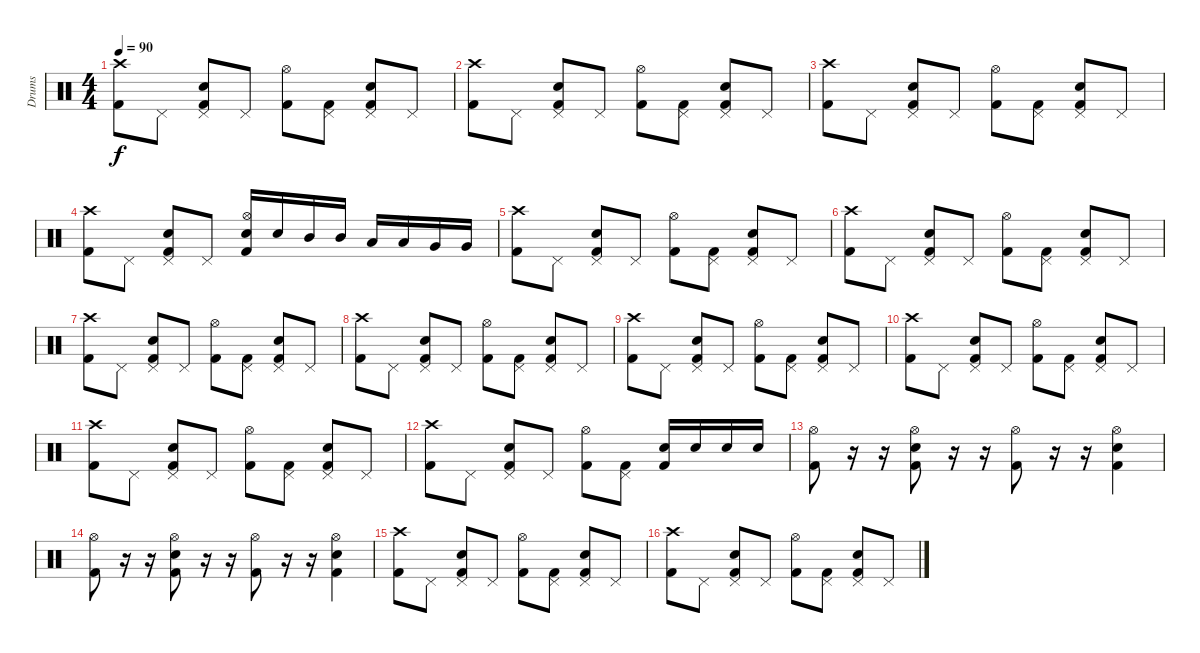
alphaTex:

\track ("Drums" "Drums") {instrument percussion}
\staff {score}
\articulation defaults
\ts (4 4)
\tempo 90
\clef neutral
\ks c
("Crash high (hit)" "Kick (hit) 2").8{dy f} "Pedal Hi-Hat (hit)".8 ("Pedal Hi-Hat (hit)" "Electric Snare (hit)" "Kick (hit) 2").8 "Pedal Hi-Hat (hit)".8 ("Hi-Hat (open)" "Kick (hit) 2").8 ("Pedal Hi-Hat (hit)" "Kick (hit) 2").8 ("Pedal Hi-Hat (hit)" "Electric Snare (hit)" "Kick (hit) 2").8 "Pedal Hi-Hat (hit)".8 |
("Crash high (hit)" "Kick (hit) 2").8 "Pedal Hi-Hat (hit)".8 ("Pedal Hi-Hat (hit)" "Electric Snare (hit)" "Kick (hit) 2").8 "Pedal Hi-Hat (hit)".8 ("Hi-Hat (open)" "Kick (hit) 2").8 ("Pedal Hi-Hat (hit)" "Kick (hit) 2").8 ("Pedal Hi-Hat (hit)" "Electric Snare (hit)" "Kick (hit) 2").8 "Pedal Hi-Hat (hit)".8 |
("Crash high (hit)" "Kick (hit) 2").8 "Pedal Hi-Hat (hit)".8 ("Pedal Hi-Hat (hit)" "Electric Snare (hit)" "Kick (hit) 2").8 "Pedal Hi-Hat (hit)".8 ("Hi-Hat (open)" "Kick (hit) 2").8 ("Pedal Hi-Hat (hit)" "Kick (hit) 2").8 ("Pedal Hi-Hat (hit)" "Electric Snare (hit)" "Kick (hit) 2").8 "Pedal Hi-Hat (hit)".8 |
("Crash high (hit)" "Kick (hit) 2").8 "Pedal Hi-Hat (hit)".8 ("Pedal Hi-Hat (hit)" "Electric Snare (hit)" "Kick (hit) 2").8 "Pedal Hi-Hat (hit)".8 ("Hi-Hat (open)" "Snare (hit) 2" "Kick (hit) 2").16 "Snare (hit) 2".16 "Mid Tom (hit)".16 "Mid Tom (hit)".16 "Low Tom (hit)".16 "Low Tom (hit)".16 "Very Low Tom (hit)".16 "Very Low Tom (hit)".16 |
("Crash high (hit)" "Kick (hit) 2").8 "Pedal Hi-Hat (hit)".8 ("Pedal Hi-Hat (hit)" "Electric Snare (hit)" "Kick (hit) 2").8 "Pedal Hi-Hat (hit)".8 ("Hi-Hat (open)" "Kick (hit) 2").8 ("Pedal Hi-Hat (hit)" "Kick (hit) 2").8 ("Pedal Hi-Hat (hit)" "Electric Snare (hit)" "Kick (hit) 2").8 "Pedal Hi-Hat (hit)".8 |
("Crash high (hit)" "Kick (hit) 2").8 "Pedal Hi-Hat (hit)".8 ("Pedal Hi-Hat (hit)" "Electric Snare (hit)" "Kick (hit) 2").8 "Pedal Hi-Hat (hit)".8 ("Hi-Hat (open)" "Kick (hit) 2").8 ("Pedal Hi-Hat (hit)" "Kick (hit) 2").8 ("Pedal Hi-Hat (hit)" "Electric Snare (hit)" "Kick (hit) 2").8 "Pedal Hi-Hat (hit)".8 |
("Crash high (hit)" "Kick (hit) 2").8 "Pedal Hi-Hat (hit)".8 ("Pedal Hi-Hat (hit)" "Electric Snare (hit)" "Kick (hit) 2").8 "Pedal Hi-Hat (hit)".8 ("Hi-Hat (open)" "Kick (hit) 2").8 ("Pedal Hi-Hat (hit)" "Kick (hit) 2").8 ("Pedal Hi-Hat (hit)" "Electric Snare (hit)" "Kick (hit) 2").8 "Pedal Hi-Hat (hit)".8 |
("Crash high (hit)" "Kick (hit) 2").8 "Pedal Hi-Hat (hit)".8 ("Pedal Hi-Hat (hit)" "Electric Snare (hit)" "Kick (hit) 2").8 "Pedal Hi-Hat (hit)".8 ("Hi-Hat (open)" "Kick (hit) 2").8 ("Pedal Hi-Hat (hit)" "Kick (hit) 2").8 ("Pedal Hi-Hat (hit)" "Electric Snare (hit)" "Kick (hit) 2").8 "Pedal Hi-Hat (hit)".8 |
("Crash high (hit)" "Kick (hit) 2").8 "Pedal Hi-Hat (hit)".8 ("Pedal Hi-Hat (hit)" "Electric Snare (hit)" "Kick (hit) 2").8 "Pedal Hi-Hat (hit)".8 ("Hi-Hat (open)" "Kick (hit) 2").8 ("Pedal Hi-Hat (hit)" "Kick (hit) 2").8 ("Pedal Hi-Hat (hit)" "Electric Snare (hit)" "Kick (hit) 2").8 "Pedal Hi-Hat (hit)".8 |
("Crash high (hit)" "Kick (hit) 2").8 "Pedal Hi-Hat (hit)".8 ("Pedal Hi-Hat (hit)" "Electric Snare (hit)" "Kick (hit) 2").8 "Pedal Hi-Hat (hit)".8 ("Hi-Hat (open)" "Kick (hit) 2").8 ("Pedal Hi-Hat (hit)" "Kick (hit) 2").8 ("Pedal Hi-Hat (hit)" "Electric Snare (hit)" "Kick (hit) 2").8 "Pedal Hi-Hat (hit)".8 |
("Crash high (hit)" "Kick (hit) 2").8 "Pedal Hi-Hat (hit)".8 ("Pedal Hi-Hat (hit)" "Electric Snare (hit)" "Kick (hit) 2").8 "Pedal Hi-Hat (hit)".8 ("Hi-Hat (open)" "Kick (hit) 2").8 ("Pedal Hi-Hat (hit)" "Kick (hit) 2").8 ("Pedal Hi-Hat (hit)" "Electric Snare (hit)" "Kick (hit) 2").8 "Pedal Hi-Hat (hit)".8 |
("Crash high (hit)" "Kick (hit) 2").8 "Pedal Hi-Hat (hit)".8 ("Pedal Hi-Hat (hit)" "Electric Snare (hit)" "Kick (hit) 2").8 "Pedal Hi-Hat (hit)".8 ("Hi-Hat (open)" "Kick (hit) 2").8 ("Pedal Hi-Hat (hit)" "Kick (hit) 2").8 ("Electric Snare (hit)" "Kick (hit) 2").16 "Electric Snare (hit)".16 "Electric Snare (hit)".16 "Electric Snare (hit)".16 |
("Hi-Hat (open)" "Kick (hit) 2").8 r.16 r.16 ("Hi-Hat (open)" "Electric Snare (hit)" "Kick (hit) 2").8 r.16 r.16 ("Hi-Hat (open)" "Kick (hit) 2").8 r.16 r.16 ("Hi-Hat (open)" "Electric Snare (hit)" "Kick (hit) 2").4 |
("Hi-Hat (open)" "Kick (hit) 2").8 r.16 r.16 ("Hi-Hat (open)" "Electric Snare (hit)" "Kick (hit) 2").8 r.16 r.16 ("Hi-Hat (open)" "Kick (hit) 2").8 r.16 r.16 ("Hi-Hat (open)" "Electric Snare (hit)" "Kick (hit) 2").4 |
("Crash high (hit)" "Kick (hit) 2").8 "Pedal Hi-Hat (hit)".8 ("Pedal Hi-Hat (hit)" "Electric Snare (hit)" "Kick (hit) 2").8 "Pedal Hi-Hat (hit)".8 ("Hi-Hat (open)" "Kick (hit) 2").8 ("Pedal Hi-Hat (hit)" "Kick (hit) 2").8 ("Pedal Hi-Hat (hit)" "Electric Snare (hit)" "Kick (hit) 2").8 "Pedal Hi-Hat (hit)".8 |
("Crash high (hit)" "Kick (hit) 2").8 "Pedal Hi-Hat (hit)".8 ("Pedal Hi-Hat (hit)" "Electric Snare (hit)" "Kick (hit) 2").8 "Pedal Hi-Hat (hit)".8 ("Hi-Hat (open)" "Kick (hit) 2").8 ("Pedal Hi-Hat (hit)" "Kick (hit) 2").8 ("Pedal Hi-Hat (hit)" "Electric Snare (hit)" "Kick (hit) 2").8 "Pedal Hi-Hat (hit)".8
